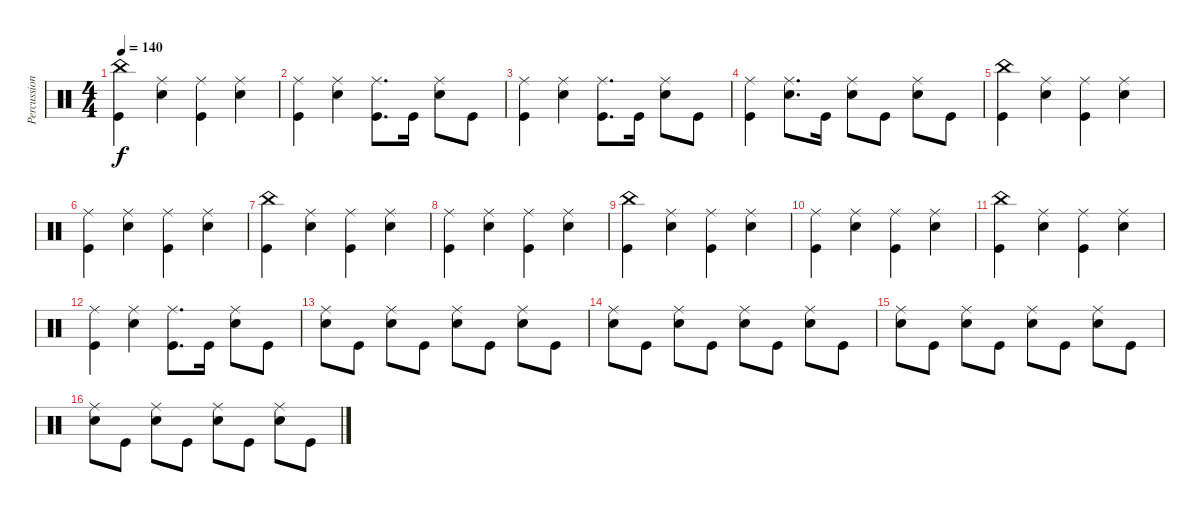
\track ("Percussion" "Percussion") {instrument percussion}
\staff {score}
\articulation defaults
\ts (4 4)
\tempo 140
\clef neutral
\ks c
("China (hit)" "Kick (hit)").4{dy f} ("Ride (middle)" "Electric Snare (hit)").4 ("Ride (middle)" "Kick (hit)").4 ("Ride (middle)" "Electric Snare (hit)").4 |
("Ride (middle)" "Kick (hit)").4 ("Ride (middle)" "Electric Snare (hit)").4 ("Ride (middle)" "Kick (hit)").8{d} "Kick (hit)".16 ("Ride (middle)" "Electric Snare (hit)").8 "Kick (hit)".8 |
("Ride (middle)" "Kick (hit)").4 ("Ride (middle)" "Electric Snare (hit)").4 ("Ride (middle)" "Kick (hit)").8{d} "Kick (hit)".16 ("Ride (middle)" "Electric Snare (hit)").8 "Kick (hit)".8 |
("Ride (middle)" "Kick (hit)").4 ("Ride (middle)" "Electric Snare (hit)").8{d} "Kick (hit)".16 ("Ride (middle)" "Electric Snare (hit)").8 "Kick (hit)".8 ("Ride (middle)" "Electric Snare (hit)").8 "Kick (hit)".8 |
("China (hit)" "Kick (hit)").4 ("Ride (middle)" "Electric Snare (hit)").4 ("Ride (middle)" "Kick (hit)").4 ("Ride (middle)" "Electric Snare (hit)").4 |
("Ride (middle)" "Kick (hit)").4 ("Ride (middle)" "Electric Snare (hit)").4 ("Ride (middle)" "Kick (hit)").4 ("Ride (middle)" "Electric Snare (hit)").4 |
("China (hit)" "Kick (hit)").4 ("Ride (middle)" "Electric Snare (hit)").4 ("Ride (middle)" "Kick (hit)").4 ("Ride (middle)" "Electric Snare (hit)").4 |
("Ride (middle)" "Kick (hit)").4 ("Ride (middle)" "Electric Snare (hit)").4 ("Ride (middle)" "Kick (hit)").4 ("Ride (middle)" "Electric Snare (hit)").4 |
("China (hit)" "Kick (hit)").4 ("Ride (middle)" "Electric Snare (hit)").4 ("Ride (middle)" "Kick (hit)").4 ("Ride (middle)" "Electric Snare (hit)").4 |
("Ride (middle)" "Kick (hit)").4 ("Ride (middle)" "Electric Snare (hit)").4 ("Ride (middle)" "Kick (hit)").4 ("Ride (middle)" "Electric Snare (hit)").4 |
("China (hit)" "Kick (hit)").4 ("Ride (middle)" "Electric Snare (hit)").4 ("Ride (middle)" "Kick (hit)").4 ("Ride (middle)" "Electric Snare (hit)").4 |
("Ride (middle)" "Kick (hit)").4 ("Ride (middle)" "Electric Snare (hit)").4 ("Ride (middle)" "Kick (hit)").8{d} "Kick (hit)".16 ("Ride (middle)" "Electric Snare (hit)").8 "Kick (hit)".8 |
("Ride (middle)" "Electric Snare (hit)").8 "Kick (hit)".8 ("Ride (middle)" "Electric Snare (hit)").8 "Kick (hit)".8 ("Ride (middle)" "Electric Snare (hit)").8 "Kick (hit)".8 ("Ride (middle)" "Electric Snare (hit)").8 "Kick (hit)".8 |
("Ride (middle)" "Electric Snare (hit)").8 "Kick (hit)".8 ("Ride (middle)" "Electric Snare (hit)").8 "Kick (hit)".8 ("Ride (middle)" "Electric Snare (hit)").8 "Kick (hit)".8 ("Ride (middle)" "Electric Snare (hit)").8 "Kick (hit)".8 |
("Ride (middle)" "Electric Snare (hit)").8 "Kick (hit)".8 ("Ride (middle)" "Electric Snare (hit)").8 "Kick (hit)".8 ("Ride (middle)" "Electric Snare (hit)").8 "Kick (hit)".8 ("Ride (middle)" "Electric Snare (hit)").8 "Kick (hit)".8 |
("Ride (middle)" "Electric Snare (hit)").8 "Kick (hit)".8 ("Ride (middle)" "Electric Snare (hit)").8 "Kick (hit)".8 ("Ride (middle)" "Electric Snare (hit)").8 "Kick (hit)".8 ("Ride (middle)" "Electric Snare (hit)").8 "Kick (hit)".8
